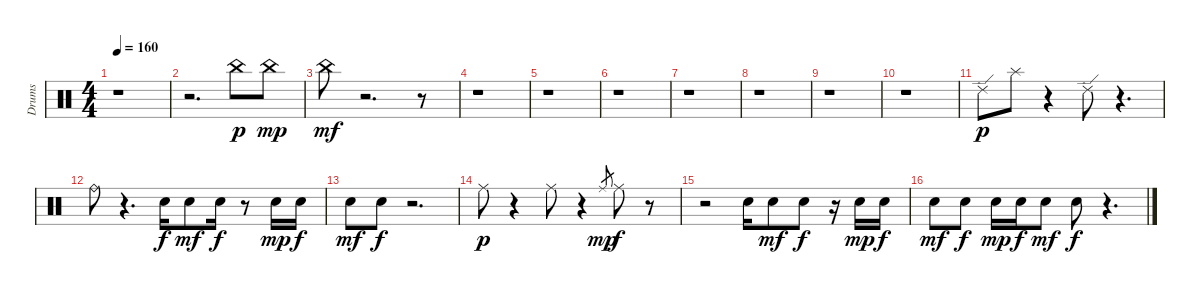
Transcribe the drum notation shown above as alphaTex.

\track ("Drums" "Drums") {instrument percussion}
\staff {score}
\articulation defaults
\ts (4 4)
\tempo 160
\clef neutral
\ks c
r.1{dy mf} |
r.2{d} "China (hit)".8{dy p} "China (hit)".8{dy mp} |
"China (hit)".8{dy mf} r.2{d} r.8 |
r.1 |
r.1 |
r.1 |
r.1 |
r.1 |
r.1 |
r.1 |
"Ride (edge) 2".8{dy p} "Splash (hit)".8 r.4 "Ride (edge) 2".8 r.4{d} |
"Ride (bell)".8 r.4{d} "Electric Snare (hit)".16{dy f} "Electric Snare (hit)".8{dy mf} "Electric Snare (hit)".16{dy f} r.8 "Electric Snare (hit)".16{dy mp} "Electric Snare (hit)".16{dy f} |
"Electric Snare (hit)".8{dy mf} "Electric Snare (hit)".8{dy f} r.2{d} |
"Ride (middle)".8{dy p} r.4 "Ride (middle)".8 r.4 "Ride (middle)".8{gr dy mp} "Ride (middle)".8{dy f} r.8 |
r.2 "Electric Snare (hit)".16 "Electric Snare (hit)".8{dy mf} "Electric Snare (hit)".8{dy f} r.16 "Electric Snare (hit)".16{dy mp} "Electric Snare (hit)".16{dy f} |
"Electric Snare (hit)".8{dy mf} "Electric Snare (hit)".8{dy f} "Electric Snare (hit)".16{dy mp} "Electric Snare (hit)".16{dy f} "Electric Snare (hit)".8{dy mf} "Electric Snare (hit)".8{dy f} r.4{d}
